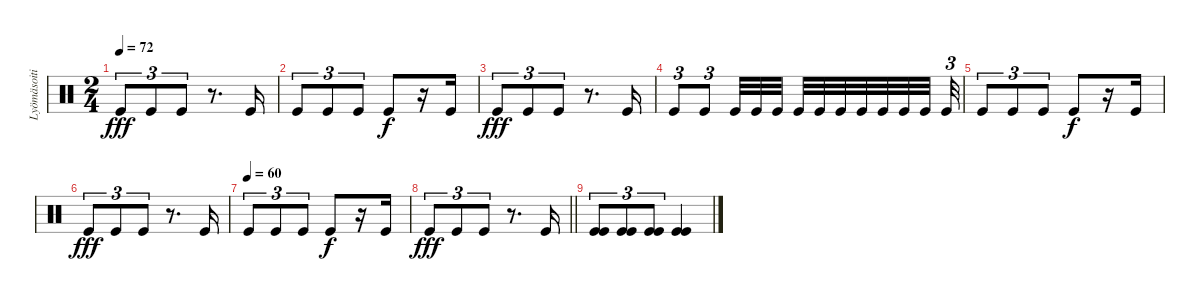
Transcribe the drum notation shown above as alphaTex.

\track ("Lyömäsoitin" "Lyömäsoiti") {instrument percussion}
\staff {score}
\articulation defaults
\ts (2 4)
\tempo 72
\clef neutral
\ks c "Kick (hit)".8{tu (3 2) dy fff} "Kick (hit)".8{tu (3 2)} "Kick (hit)".8{tu (3 2)}
r.8{d} "Kick (hit)".16 |
"Kick (hit)".8{tu (3 2)} "Kick (hit)".8{tu (3 2)} "Kick (hit)".8{tu (3 2)} "Kick (hit)".8{dy f} r.16 "Kick (hit)".16 |
"Kick (hit)".8{tu (3 2) dy fff} "Kick (hit)".8{tu (3 2)} "Kick (hit)".8{tu (3 2)} r.8{d} "Kick (hit)".16 |
"Kick (hit)".8{tu (3 2)} "Kick (hit)".8{tu (3 2)} "Kick (hit)".32 "Kick (hit)".32 "Kick (hit)".32 "Kick (hit)".32 "Kick (hit)".32 "Kick (hit)".32 "Kick (hit)".32 "Kick (hit)".32 "Kick (hit)".32 "Kick (hit)".32{beam splitsecondary} "Kick (hit)".32{tu (3 2)} |
"Kick (hit)".8{tu (3 2)} "Kick (hit)".8{tu (3 2)} "Kick (hit)".8{tu (3 2)} "Kick (hit)".8{dy f} r.16 "Kick (hit)".16 |
"Kick (hit)".8{tu (3 2) dy fff} "Kick (hit)".8{tu (3 2)} "Kick (hit)".8{tu (3 2)} r.8{d} "Kick (hit)".16 |
\tempo (60)
"Kick (hit)".8{tu (3 2)} "Kick (hit)".8{tu (3 2)} "Kick (hit)".8{tu (3 2)} "Kick (hit)".8{dy f} r.16 "Kick (hit)".16 |
\barLineRight lightlight "Kick (hit)".8{tu (3 2) dy fff} "Kick (hit)".8{tu (3 2)} "Kick (hit)".8{tu (3 2)}
r.8{d} "Kick (hit)".16 |
("Kick (hit)" "Kick (hit)").8{tu (3 2)} ("Kick (hit)" "Kick (hit)").8{tu (3 2)} ("Kick (hit)" "Kick (hit)").8{tu (3 2)} ("Kick (hit)" "Kick (hit)").4
